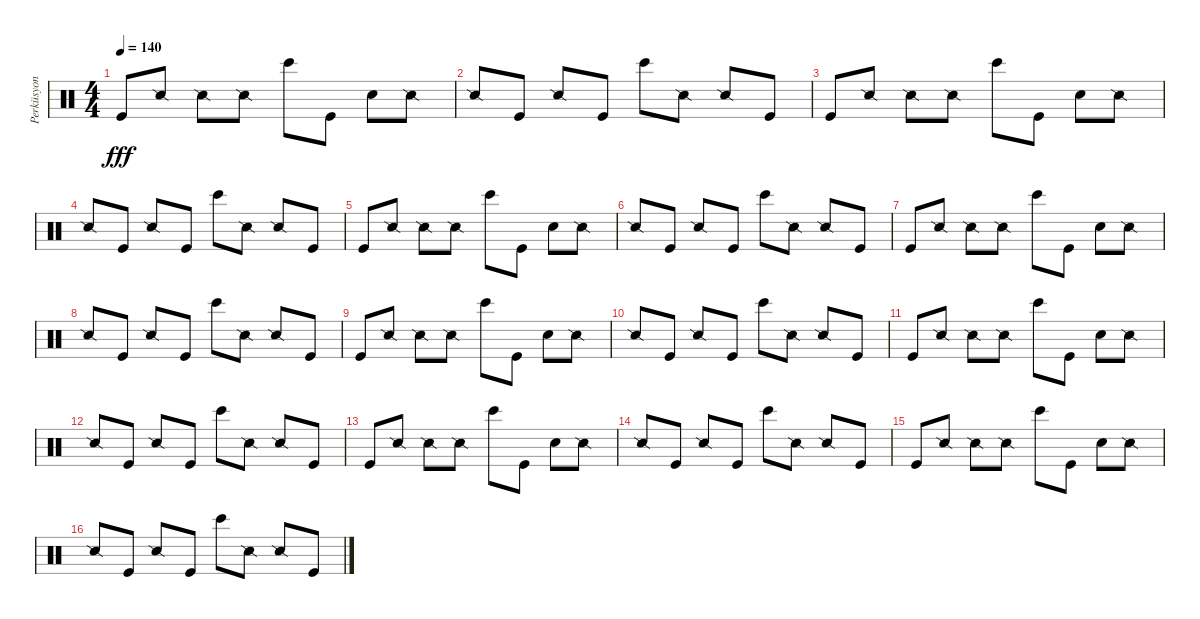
\track ("Perküsyon" "Perküsyon") {instrument percussion}
\staff {score}
\articulation defaults
\ts (4 4)
\tempo 140
\clef neutral
\ks c "Kick (hit)".8{dy fff} "Snare (side stick) 2".8 "Snare (side stick) 2".8 "Snare (side stick) 2".8 "Bongo High (hit)".8 "Kick (hit)".8 "Metronome (bell)".8 "Snare (side stick) 2".8
|
"Snare (side stick) 2".8 "Kick (hit)".8 "Snare (side stick) 2".8 "Kick (hit)".8 "Bongo High (hit)".8 "Snare (side stick) 2".8 "Snare (side stick) 2".8 "Kick (hit)".8 |
"Kick (hit)".8 "Snare (side stick) 2".8 "Snare (side stick) 2".8 "Snare (side stick) 2".8 "Bongo High (hit)".8 "Kick (hit)".8 "Metronome (bell)".8 "Snare (side stick) 2".8 |
"Snare (side stick) 2".8 "Kick (hit)".8 "Snare (side stick) 2".8 "Kick (hit)".8 "Bongo High (hit)".8 "Snare (side stick) 2".8 "Snare (side stick) 2".8 "Kick (hit)".8 |
"Kick (hit)".8 "Snare (side stick) 2".8 "Snare (side stick) 2".8 "Snare (side stick) 2".8 "Bongo High (hit)".8 "Kick (hit)".8 "Metronome (bell)".8 "Snare (side stick) 2".8 |
"Snare (side stick) 2".8 "Kick (hit)".8 "Snare (side stick) 2".8 "Kick (hit)".8 "Bongo High (hit)".8 "Snare (side stick) 2".8 "Snare (side stick) 2".8 "Kick (hit)".8 |
"Kick (hit)".8 "Snare (side stick) 2".8 "Snare (side stick) 2".8 "Snare (side stick) 2".8 "Bongo High (hit)".8 "Kick (hit)".8 "Metronome (bell)".8 "Snare (side stick) 2".8 |
"Snare (side stick) 2".8 "Kick (hit)".8 "Snare (side stick) 2".8 "Kick (hit)".8 "Bongo High (hit)".8 "Snare (side stick) 2".8 "Snare (side stick) 2".8 "Kick (hit)".8 |
"Kick (hit)".8 "Snare (side stick) 2".8 "Snare (side stick) 2".8 "Snare (side stick) 2".8 "Bongo High (hit)".8 "Kick (hit)".8 "Metronome (bell)".8 "Snare (side stick) 2".8 |
"Snare (side stick) 2".8 "Kick (hit)".8 "Snare (side stick) 2".8 "Kick (hit)".8 "Bongo High (hit)".8 "Snare (side stick) 2".8 "Snare (side stick) 2".8 "Kick (hit)".8 |
"Kick (hit)".8 "Snare (side stick) 2".8 "Snare (side stick) 2".8 "Snare (side stick) 2".8 "Bongo High (hit)".8 "Kick (hit)".8 "Metronome (bell)".8 "Snare (side stick) 2".8 |
"Snare (side stick) 2".8 "Kick (hit)".8 "Snare (side stick) 2".8 "Kick (hit)".8 "Bongo High (hit)".8 "Snare (side stick) 2".8 "Snare (side stick) 2".8 "Kick (hit)".8 |
"Kick (hit)".8 "Snare (side stick) 2".8 "Snare (side stick) 2".8 "Snare (side stick) 2".8 "Bongo High (hit)".8 "Kick (hit)".8 "Metronome (bell)".8 "Snare (side stick) 2".8 |
"Snare (side stick) 2".8 "Kick (hit)".8 "Snare (side stick) 2".8 "Kick (hit)".8 "Bongo High (hit)".8 "Snare (side stick) 2".8 "Snare (side stick) 2".8 "Kick (hit)".8 |
"Kick (hit)".8 "Snare (side stick) 2".8 "Snare (side stick) 2".8 "Snare (side stick) 2".8 "Bongo High (hit)".8 "Kick (hit)".8 "Metronome (bell)".8 "Snare (side stick) 2".8 |
"Snare (side stick) 2".8 "Kick (hit)".8 "Snare (side stick) 2".8 "Kick (hit)".8 "Bongo High (hit)".8 "Snare (side stick) 2".8 "Snare (side stick) 2".8 "Kick (hit)".8
